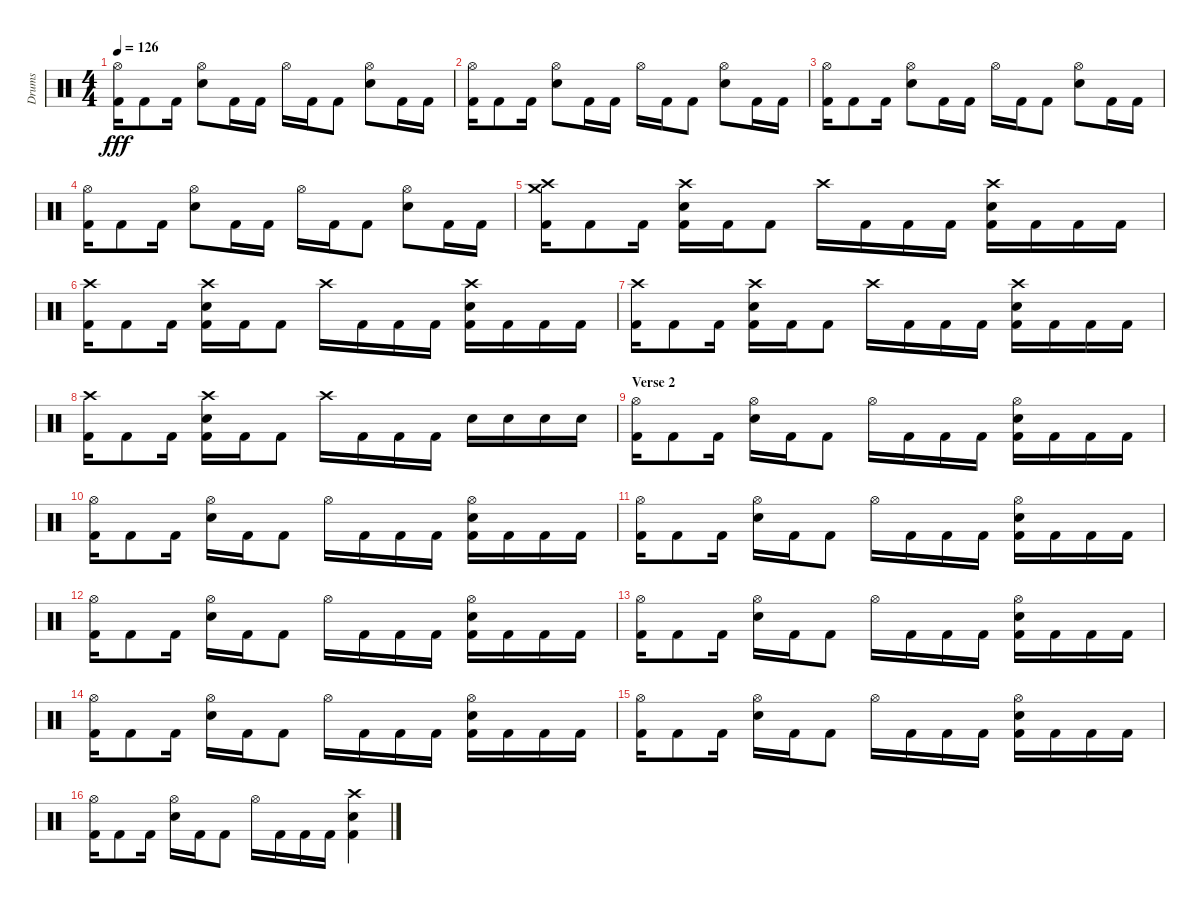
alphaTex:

\track ("Drums" "Drums") {instrument percussion}
\staff {score}
\articulation defaults
\ts (4 4)
\tempo 126
\clef neutral
\ks c
("Hi-Hat (open)" "Kick (hit) 2").16{dy fff} "Kick (hit) 2".8 "Kick (hit) 2".16 ("Hi-Hat (open)" "Electric Snare (hit)").8 "Kick (hit) 2".16 "Kick (hit) 2".16 "Hi-Hat (open)".16 "Kick (hit) 2".16 "Kick (hit) 2".8 ("Hi-Hat (open)" "Electric Snare (hit)").8 "Kick (hit) 2".16 "Kick (hit) 2".16 |
("Hi-Hat (open)" "Kick (hit) 2").16 "Kick (hit) 2".8 "Kick (hit) 2".16 ("Hi-Hat (open)" "Electric Snare (hit)").8 "Kick (hit) 2".16 "Kick (hit) 2".16 "Hi-Hat (open)".16 "Kick (hit) 2".16 "Kick (hit) 2".8 ("Hi-Hat (open)" "Electric Snare (hit)").8 "Kick (hit) 2".16 "Kick (hit) 2".16 |
("Hi-Hat (open)" "Kick (hit) 2").16 "Kick (hit) 2".8 "Kick (hit) 2".16 ("Hi-Hat (open)" "Electric Snare (hit)").8 "Kick (hit) 2".16 "Kick (hit) 2".16 "Hi-Hat (open)".16 "Kick (hit) 2".16 "Kick (hit) 2".8 ("Hi-Hat (open)" "Electric Snare (hit)").8 "Kick (hit) 2".16 "Kick (hit) 2".16 |
("Hi-Hat (open)" "Kick (hit) 2").16 "Kick (hit) 2".8 "Kick (hit) 2".16 ("Hi-Hat (open)" "Electric Snare (hit)").8 "Kick (hit) 2".16 "Kick (hit) 2".16 "Hi-Hat (open)".16 "Kick (hit) 2".16 "Kick (hit) 2".8 ("Hi-Hat (open)" "Electric Snare (hit)").8 "Kick (hit) 2".16 "Kick (hit) 2".16 |
("Crash high (hit)" "Crash medium (hit)" "Kick (hit) 2").16 "Kick (hit) 2".8 "Kick (hit) 2".16 ("Crash high (hit)" "Electric Snare (hit)" "Kick (hit) 2").16 "Kick (hit) 2".16 "Kick (hit) 2".8 "Crash high (hit)".16 "Kick (hit) 2".16 "Kick (hit) 2".16 "Kick (hit) 2".16 ("Crash high (hit)" "Electric Snare (hit)" "Kick (hit) 2").16 "Kick (hit) 2".16 "Kick (hit) 2".16 "Kick (hit) 2".16 |
("Crash high (hit)" "Kick (hit) 2").16 "Kick (hit) 2".8 "Kick (hit) 2".16 ("Crash high (hit)" "Electric Snare (hit)" "Kick (hit) 2").16 "Kick (hit) 2".16 "Kick (hit) 2".8 "Crash high (hit)".16 "Kick (hit) 2".16 "Kick (hit) 2".16 "Kick (hit) 2".16 ("Crash high (hit)" "Electric Snare (hit)" "Kick (hit) 2").16 "Kick (hit) 2".16 "Kick (hit) 2".16 "Kick (hit) 2".16 |
("Crash high (hit)" "Kick (hit) 2").16 "Kick (hit) 2".8 "Kick (hit) 2".16 ("Crash high (hit)" "Electric Snare (hit)" "Kick (hit) 2").16 "Kick (hit) 2".16 "Kick (hit) 2".8 "Crash high (hit)".16 "Kick (hit) 2".16 "Kick (hit) 2".16 "Kick (hit) 2".16 ("Crash high (hit)" "Electric Snare (hit)" "Kick (hit) 2").16 "Kick (hit) 2".16 "Kick (hit) 2".16 "Kick (hit) 2".16 |
("Crash high (hit)" "Kick (hit) 2").16 "Kick (hit) 2".8 "Kick (hit) 2".16 ("Crash high (hit)" "Electric Snare (hit)" "Kick (hit) 2").16 "Kick (hit) 2".16 "Kick (hit) 2".8 "Crash high (hit)".16 "Kick (hit) 2".16 "Kick (hit) 2".16 "Kick (hit) 2".16 "Electric Snare (hit)".16 "Electric Snare (hit)".16 "Electric Snare (hit)".16 "Electric Snare (hit)".16 |
\section ("" "Verse 2")
("Hi-Hat (open)" "Kick (hit) 2").16 "Kick (hit) 2".8 "Kick (hit) 2".16 ("Hi-Hat (open)" "Electric Snare (hit)").16 "Kick (hit) 2".16 "Kick (hit) 2".8 "Hi-Hat (open)".16 "Kick (hit) 2".16 "Kick (hit) 2".16 "Kick (hit) 2".16 ("Hi-Hat (open)" "Electric Snare (hit)" "Kick (hit) 2").16 "Kick (hit) 2".16 "Kick (hit) 2".16 "Kick (hit) 2".16 |
("Hi-Hat (open)" "Kick (hit) 2").16 "Kick (hit) 2".8 "Kick (hit) 2".16 ("Hi-Hat (open)" "Electric Snare (hit)").16 "Kick (hit) 2".16 "Kick (hit) 2".8 "Hi-Hat (open)".16 "Kick (hit) 2".16 "Kick (hit) 2".16 "Kick (hit) 2".16 ("Hi-Hat (open)" "Electric Snare (hit)" "Kick (hit) 2").16 "Kick (hit) 2".16 "Kick (hit) 2".16 "Kick (hit) 2".16 |
("Hi-Hat (open)" "Kick (hit) 2").16 "Kick (hit) 2".8 "Kick (hit) 2".16 ("Hi-Hat (open)" "Electric Snare (hit)").16 "Kick (hit) 2".16 "Kick (hit) 2".8 "Hi-Hat (open)".16 "Kick (hit) 2".16 "Kick (hit) 2".16 "Kick (hit) 2".16 ("Hi-Hat (open)" "Electric Snare (hit)" "Kick (hit) 2").16 "Kick (hit) 2".16 "Kick (hit) 2".16 "Kick (hit) 2".16 |
("Hi-Hat (open)" "Kick (hit) 2").16 "Kick (hit) 2".8 "Kick (hit) 2".16 ("Hi-Hat (open)" "Electric Snare (hit)").16 "Kick (hit) 2".16 "Kick (hit) 2".8 "Hi-Hat (open)".16 "Kick (hit) 2".16 "Kick (hit) 2".16 "Kick (hit) 2".16 ("Hi-Hat (open)" "Electric Snare (hit)" "Kick (hit) 2").16 "Kick (hit) 2".16 "Kick (hit) 2".16 "Kick (hit) 2".16 |
("Hi-Hat (open)" "Kick (hit) 2").16 "Kick (hit) 2".8 "Kick (hit) 2".16 ("Hi-Hat (open)" "Electric Snare (hit)").16 "Kick (hit) 2".16 "Kick (hit) 2".8 "Hi-Hat (open)".16 "Kick (hit) 2".16 "Kick (hit) 2".16 "Kick (hit) 2".16 ("Hi-Hat (open)" "Electric Snare (hit)" "Kick (hit) 2").16 "Kick (hit) 2".16 "Kick (hit) 2".16 "Kick (hit) 2".16 |
("Hi-Hat (open)" "Kick (hit) 2").16 "Kick (hit) 2".8 "Kick (hit) 2".16 ("Hi-Hat (open)" "Electric Snare (hit)").16 "Kick (hit) 2".16 "Kick (hit) 2".8 "Hi-Hat (open)".16 "Kick (hit) 2".16 "Kick (hit) 2".16 "Kick (hit) 2".16 ("Hi-Hat (open)" "Electric Snare (hit)" "Kick (hit) 2").16 "Kick (hit) 2".16 "Kick (hit) 2".16 "Kick (hit) 2".16 |
("Hi-Hat (open)" "Kick (hit) 2").16 "Kick (hit) 2".8 "Kick (hit) 2".16 ("Hi-Hat (open)" "Electric Snare (hit)").16 "Kick (hit) 2".16 "Kick (hit) 2".8 "Hi-Hat (open)".16 "Kick (hit) 2".16 "Kick (hit) 2".16 "Kick (hit) 2".16 ("Hi-Hat (open)" "Electric Snare (hit)" "Kick (hit) 2").16 "Kick (hit) 2".16 "Kick (hit) 2".16 "Kick (hit) 2".16 |
("Hi-Hat (open)" "Kick (hit) 2").16 "Kick (hit) 2".8 "Kick (hit) 2".16 ("Hi-Hat (open)" "Electric Snare (hit)").16 "Kick (hit) 2".16 "Kick (hit) 2".8 "Hi-Hat (open)".16 "Kick (hit) 2".16 "Kick (hit) 2".16 "Kick (hit) 2".16 ("Crash high (hit)" "Electric Snare (hit)" "Kick (hit) 2").4
